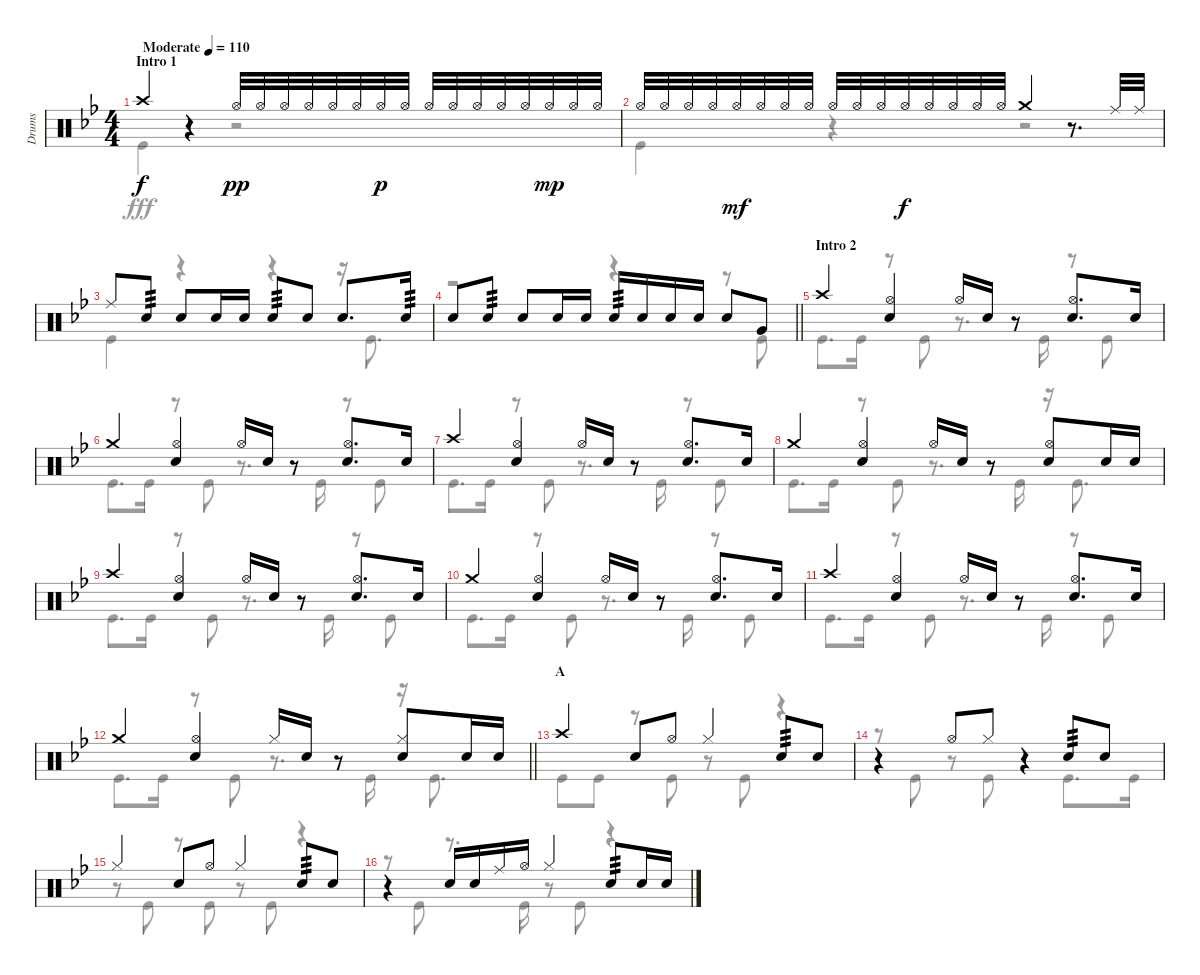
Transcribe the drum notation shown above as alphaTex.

\track ("Drums" "Drums") {instrument percussion}
\staff {score}
\articulation defaults
\voice
\ts (4 4)
\section ("" "Intro 1")
\tempo (110 "Moderate")
\clef neutral
\ks bb "Crash high (hit)".4{dy f}
r.4 "Hi-Hat (open)".32{dy pp} "Hi-Hat (open)".32 "Hi-Hat (open)".32 "Hi-Hat (open)".32 "Hi-Hat (open)".32 "Hi-Hat (open)".32 "Hi-Hat (open)".32{dy p} "Hi-Hat (open)".32 "Hi-Hat (open)".32 "Hi-Hat (open)".32 "Hi-Hat (open)".32 "Hi-Hat (open)".32 "Hi-Hat (open)".32 "Hi-Hat (open)".32{dy mp} "Hi-Hat (open)".32 "Hi-Hat (open)".32 |
"Hi-Hat (open)".32 "Hi-Hat (open)".32 "Hi-Hat (open)".32 "Hi-Hat (open)".32 "Hi-Hat (open)".32{dy mf} "Hi-Hat (open)".32 "Hi-Hat (open)".32 "Hi-Hat (open)".32 "Hi-Hat (open)".32 "Hi-Hat (open)".32 "Hi-Hat (open)".32 "Hi-Hat (open)".32{dy f} "Hi-Hat (open)".32 "Hi-Hat (open)".32 "Hi-Hat (open)".32 "Hi-Hat (open)".32 "Crash medium (hit)".4 r.8{d} "Ride (middle)".32 "Ride (middle)".32 |
"Ride (middle)".8 "Snare (hit) 2".8{tp 3} "Snare (hit) 2".8 "Snare (hit) 2".16 "Snare (hit) 2".16 "Snare (hit) 2".8{tp 3} "Snare (hit) 2".8 "Snare (hit) 2".8{d} "Snare (hit) 2".16{tp 3} |
\barLineRight lightlight "Snare (hit) 2".8 "Snare (hit) 2".8{tp 3} "Snare (hit) 2".8 "Snare (hit) 2".16 "Snare (hit) 2".16 "Snare (hit) 2".16{tp 3} "Snare (hit) 2".16 "Snare (hit) 2".16 "Snare (hit) 2".16 "Snare (hit) 2".8 "Very Low Tom (hit)".8
|
\section ("" "Intro 2")
"Crash high (hit)".4 ("Hi-Hat (open)" "Snare (hit) 2").4 "Hi-Hat (open)".16 "Snare (hit) 2".16 r.8 ("Hi-Hat (open)" "Snare (hit) 2").8{d} "Snare (hit) 2".16 |
"Crash medium (hit)".4 ("Hi-Hat (open)" "Snare (hit) 2").4 "Hi-Hat (open)".16 "Snare (hit) 2".16 r.8 ("Hi-Hat (open)" "Snare (hit) 2").8{d} "Snare (hit) 2".16 |
"Crash high (hit)".4 ("Hi-Hat (open)" "Snare (hit) 2").4 "Hi-Hat (open)".16 "Snare (hit) 2".16 r.8 ("Hi-Hat (open)" "Snare (hit) 2").8{d} "Snare (hit) 2".16 |
"Crash medium (hit)".4 ("Hi-Hat (open)" "Snare (hit) 2").4 "Hi-Hat (open)".16 "Snare (hit) 2".16 r.8 ("Hi-Hat (open)" "Snare (hit) 2").8 "Snare (hit) 2".16 "Snare (hit) 2".16 |
"Crash high (hit)".4 ("Hi-Hat (open)" "Snare (hit) 2").4 "Hi-Hat (open)".16 "Snare (hit) 2".16 r.8 ("Hi-Hat (open)" "Snare (hit) 2").8{d} "Snare (hit) 2".16 |
"Crash medium (hit)".4 ("Hi-Hat (open)" "Snare (hit) 2").4 "Hi-Hat (open)".16 "Snare (hit) 2".16 r.8 ("Hi-Hat (open)" "Snare (hit) 2").8{d} "Snare (hit) 2".16 |
"Crash high (hit)".4 ("Hi-Hat (open)" "Snare (hit) 2").4 "Hi-Hat (open)".16 "Snare (hit) 2".16 r.8 ("Hi-Hat (open)" "Snare (hit) 2").8{d} "Snare (hit) 2".16 |
\barLineRight lightlight "Crash medium (hit)".4
("Hi-Hat (open)" "Snare (hit) 2").4 "Hi-Hat (closed)".16 "Snare (hit) 2".16 r.8 ("Hi-Hat (closed)" "Snare (hit) 2").8 "Snare (hit) 2".16 "Snare (hit) 2".16 |
\section ("" "A")
"Crash high (hit)".4 "Snare (hit) 2".8 "Hi-Hat (open)".8 "Hi-Hat (closed)".4 "Snare (hit) 2".8{tp 3} "Snare (hit) 2".8 |
r.4 "Hi-Hat (open)".8 "Hi-Hat (closed)".8 r.4 "Snare (hit) 2".8{tp 3} "Snare (hit) 2".8 |
"Hi-Hat (closed)".4 "Snare (hit) 2".8 "Hi-Hat (open)".8 "Hi-Hat (closed)".4 "Snare (hit) 2".8{tp 3} "Snare (hit) 2".8 |
r.4 "Snare (hit) 2".16 "Snare (hit) 2".16 "Ride (middle)".16 "Hi-Hat (open)".16 "Hi-Hat (closed)".4 "Snare (hit) 2".8{tp 3} "Snare (hit) 2".16 "Snare (hit) 2".16
\voice
\clef neutral
\ottava regular
\simile none
\ks bb "Kick (hit)".4{dy fff}
r.4 r.2 |
"Kick (hit)".4 r.4 r.2 |
"Kick (hit)".4 r.4 r.4 r.16 "Kick (hit)".8{d} |
\barLineRight lightlight
r.2 r.4 r.8 "Kick (hit)".8 |
"Kick (hit)".8{d} "Kick (hit)".16 r.8 "Kick (hit)".8 r.8{d} "Kick (hit)".16 r.8 "Kick (hit)".8 |
"Kick (hit)".8{d} "Kick (hit)".16 r.8 "Kick (hit)".8 r.8{d} "Kick (hit)".16 r.8 "Kick (hit)".8 |
"Kick (hit)".8{d} "Kick (hit)".16 r.8 "Kick (hit)".8 r.8{d} "Kick (hit)".16 r.8 "Kick (hit)".8 |
"Kick (hit)".8{d} "Kick (hit)".16 r.8 "Kick (hit)".8 r.8{d} "Kick (hit)".16 r.16 "Kick (hit)".8{d} |
"Kick (hit)".8{d} "Kick (hit)".16 r.8 "Kick (hit)".8 r.8{d} "Kick (hit)".16 r.8 "Kick (hit)".8 |
"Kick (hit)".8{d} "Kick (hit)".16 r.8 "Kick (hit)".8 r.8{d} "Kick (hit)".16 r.8 "Kick (hit)".8 |
"Kick (hit)".8{d} "Kick (hit)".16 r.8 "Kick (hit)".8 r.8{d} "Kick (hit)".16 r.8 "Kick (hit)".8 |
\barLineRight lightlight "Kick (hit)".8{d} "Kick (hit)".16
r.8 "Kick (hit)".8 r.8{d} "Kick (hit)".16 r.16 "Kick (hit)".8{d} |
"Kick (hit)".8 "Kick (hit)".8 r.8 "Kick (hit)".8 r.8 "Kick (hit)".8 r.4 |
r.8 "Kick (hit)".8 r.8 "Kick (hit)".8 r.4 "Kick (hit)".8{d} "Kick (hit)".16 |
r.8 "Kick (hit)".8 r.8 "Kick (hit)".8 r.8 "Kick (hit)".8 r.4 |
r.8 "Kick (hit)".8 r.8{d} "Kick (hit)".16 r.8 "Kick (hit)".8 r.4
